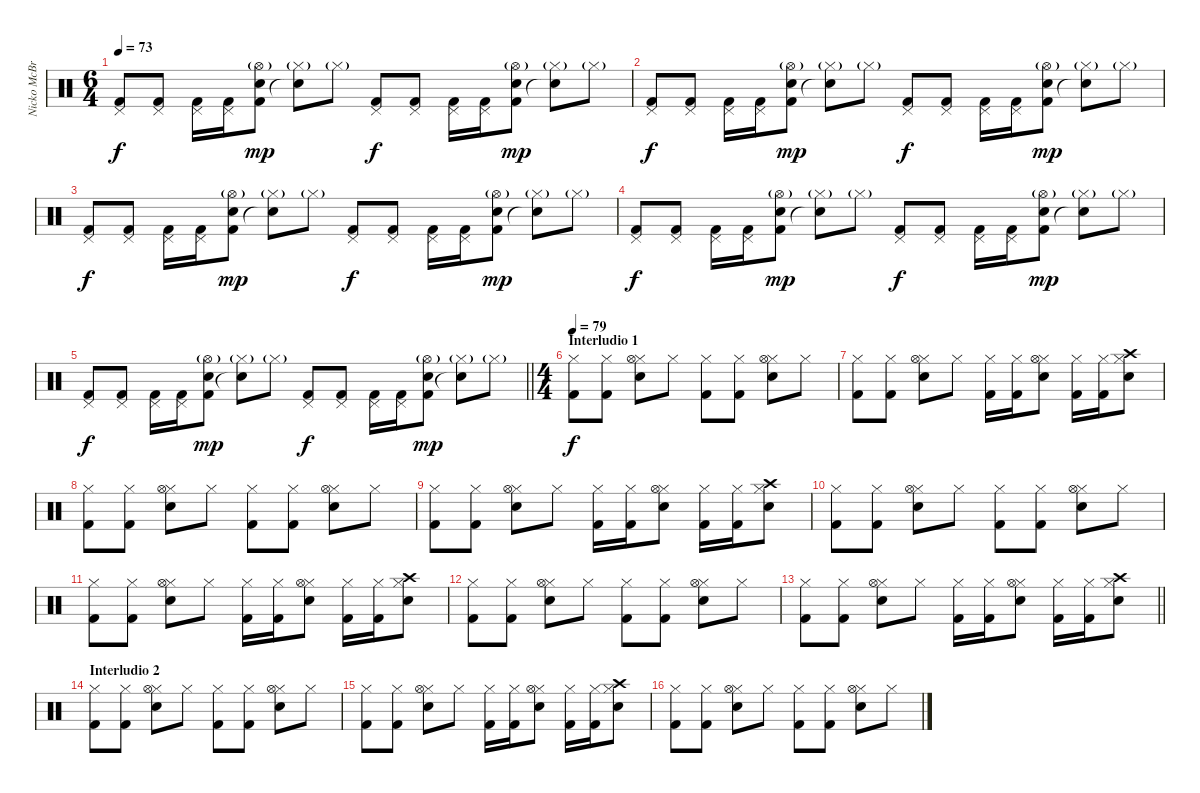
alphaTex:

\track ("Nicko McBrain" "Nicko McBr") {instrument percussion}
\staff {score}
\articulation defaults
\ts (6 4)
\tempo 73
\clef neutral
\ks c
("Kick (hit) 2" "Pedal Hi-Hat (hit)").8{dy f} ("Kick (hit) 2" "Pedal Hi-Hat (hit)").8 ("Kick (hit) 2" "Pedal Hi-Hat (hit)").16 ("Kick (hit) 2" "Pedal Hi-Hat (hit)").16 ("Snare (hit) 2" "Kick (hit) 2" "Hi-Hat (open)"{g}).8{dy mp} ("Hi-Hat (closed)"{g} "Snare (hit)"{t}).8 "Hi-Hat (closed)"{g}.8 ("Kick (hit) 2" "Pedal Hi-Hat (hit)").8{dy f} ("Kick (hit) 2" "Pedal Hi-Hat (hit)").8 ("Kick (hit) 2" "Pedal Hi-Hat (hit)").16 ("Kick (hit) 2" "Pedal Hi-Hat (hit)").16 ("Snare (hit) 2" "Kick (hit) 2" "Hi-Hat (open)"{g}).8{dy mp} ("Hi-Hat (closed)"{g} "Snare (hit)"{t}).8 "Hi-Hat (closed)"{g}.8 |
("Kick (hit) 2" "Pedal Hi-Hat (hit)").8{dy f} ("Kick (hit) 2" "Pedal Hi-Hat (hit)").8 ("Kick (hit) 2" "Pedal Hi-Hat (hit)").16 ("Kick (hit) 2" "Pedal Hi-Hat (hit)").16 ("Snare (hit) 2" "Kick (hit) 2" "Hi-Hat (open)"{g}).8{dy mp} ("Hi-Hat (closed)"{g} "Snare (hit)"{t}).8 "Hi-Hat (closed)"{g}.8 ("Kick (hit) 2" "Pedal Hi-Hat (hit)").8{dy f} ("Kick (hit) 2" "Pedal Hi-Hat (hit)").8 ("Kick (hit) 2" "Pedal Hi-Hat (hit)").16 ("Kick (hit) 2" "Pedal Hi-Hat (hit)").16 ("Snare (hit) 2" "Kick (hit) 2" "Hi-Hat (open)"{g}).8{dy mp} ("Hi-Hat (closed)"{g} "Snare (hit)"{t}).8 "Hi-Hat (closed)"{g}.8 |
("Kick (hit) 2" "Pedal Hi-Hat (hit)").8{dy f} ("Kick (hit) 2" "Pedal Hi-Hat (hit)").8 ("Kick (hit) 2" "Pedal Hi-Hat (hit)").16 ("Kick (hit) 2" "Pedal Hi-Hat (hit)").16 ("Snare (hit) 2" "Kick (hit) 2" "Hi-Hat (open)"{g}).8{dy mp} ("Hi-Hat (closed)"{g} "Snare (hit)"{t}).8 "Hi-Hat (closed)"{g}.8 ("Kick (hit) 2" "Pedal Hi-Hat (hit)").8{dy f} ("Kick (hit) 2" "Pedal Hi-Hat (hit)").8 ("Kick (hit) 2" "Pedal Hi-Hat (hit)").16 ("Kick (hit) 2" "Pedal Hi-Hat (hit)").16 ("Snare (hit) 2" "Kick (hit) 2" "Hi-Hat (open)"{g}).8{dy mp} ("Hi-Hat (closed)"{g} "Snare (hit)"{t}).8 "Hi-Hat (closed)"{g}.8 |
("Kick (hit) 2" "Pedal Hi-Hat (hit)").8{dy f} ("Kick (hit) 2" "Pedal Hi-Hat (hit)").8 ("Kick (hit) 2" "Pedal Hi-Hat (hit)").16 ("Kick (hit) 2" "Pedal Hi-Hat (hit)").16 ("Snare (hit) 2" "Kick (hit) 2" "Hi-Hat (open)"{g}).8{dy mp} ("Hi-Hat (closed)"{g} "Snare (hit)"{t}).8 "Hi-Hat (closed)"{g}.8 ("Kick (hit) 2" "Pedal Hi-Hat (hit)").8{dy f} ("Kick (hit) 2" "Pedal Hi-Hat (hit)").8 ("Kick (hit) 2" "Pedal Hi-Hat (hit)").16 ("Kick (hit) 2" "Pedal Hi-Hat (hit)").16 ("Snare (hit) 2" "Kick (hit) 2" "Hi-Hat (open)"{g}).8{dy mp} ("Hi-Hat (closed)"{g} "Snare (hit)"{t}).8 "Hi-Hat (closed)"{g}.8 |
\barLineRight lightlight
("Kick (hit) 2" "Pedal Hi-Hat (hit)").8{dy f} ("Kick (hit) 2" "Pedal Hi-Hat (hit)").8 ("Kick (hit) 2" "Pedal Hi-Hat (hit)").16 ("Kick (hit) 2" "Pedal Hi-Hat (hit)").16 ("Snare (hit) 2" "Kick (hit) 2" "Hi-Hat (open)"{g}).8{dy mp} ("Hi-Hat (closed)"{g} "Snare (hit)"{t}).8 "Hi-Hat (closed)"{g}.8 ("Kick (hit) 2" "Pedal Hi-Hat (hit)").8{dy f} ("Kick (hit) 2" "Pedal Hi-Hat (hit)").8 ("Kick (hit) 2" "Pedal Hi-Hat (hit)").16 ("Kick (hit) 2" "Pedal Hi-Hat (hit)").16 ("Snare (hit) 2" "Kick (hit) 2" "Hi-Hat (open)"{g}).8{dy mp} ("Hi-Hat (closed)"{g} "Snare (hit)"{t}).8 "Hi-Hat (closed)"{g}.8 |
\ts (4 4)
\section ("" "Interludio 1")
\tempo 79
("Kick (hit) 2" "Hi-Hat (closed)").8{dy f} ("Kick (hit) 2" "Hi-Hat (closed)").8 ("Snare (hit) 2" "Hi-Hat (closed)" "Hi-Hat (open)").8 "Hi-Hat (closed)".8 ("Kick (hit) 2" "Hi-Hat (closed)").8 ("Kick (hit) 2" "Hi-Hat (closed)").8 ("Snare (hit) 2" "Hi-Hat (closed)" "Hi-Hat (open)").8 "Hi-Hat (closed)".8 |
("Kick (hit) 2" "Hi-Hat (closed)").8 ("Kick (hit) 2" "Hi-Hat (closed)").8 ("Snare (hit) 2" "Hi-Hat (closed)" "Hi-Hat (open)").8 "Hi-Hat (closed)".8 ("Kick (hit) 2" "Hi-Hat (closed)").16 ("Kick (hit) 2" "Hi-Hat (closed)").16 ("Snare (hit) 2" "Hi-Hat (closed)" "Hi-Hat (open)").8 ("Kick (hit) 2" "Hi-Hat (closed)").16 ("Kick (hit) 2" "Hi-Hat (closed)").16 ("Snare (hit) 2" "Hi-Hat (closed)" "Crash high (hit)").8 |
("Kick (hit) 2" "Hi-Hat (closed)").8 ("Kick (hit) 2" "Hi-Hat (closed)").8 ("Snare (hit) 2" "Hi-Hat (closed)" "Hi-Hat (open)").8 "Hi-Hat (closed)".8 ("Kick (hit) 2" "Hi-Hat (closed)").8 ("Kick (hit) 2" "Hi-Hat (closed)").8 ("Snare (hit) 2" "Hi-Hat (closed)" "Hi-Hat (open)").8 "Hi-Hat (closed)".8 |
("Kick (hit) 2" "Hi-Hat (closed)").8 ("Kick (hit) 2" "Hi-Hat (closed)").8 ("Snare (hit) 2" "Hi-Hat (closed)" "Hi-Hat (open)").8 "Hi-Hat (closed)".8 ("Kick (hit) 2" "Hi-Hat (closed)").16 ("Kick (hit) 2" "Hi-Hat (closed)").16 ("Snare (hit) 2" "Hi-Hat (closed)" "Hi-Hat (open)").8 ("Kick (hit) 2" "Hi-Hat (closed)").16 ("Kick (hit) 2" "Hi-Hat (closed)").16 ("Snare (hit) 2" "Hi-Hat (closed)" "Crash high (hit)").8 |
("Kick (hit) 2" "Hi-Hat (closed)").8 ("Kick (hit) 2" "Hi-Hat (closed)").8 ("Snare (hit) 2" "Hi-Hat (closed)" "Hi-Hat (open)").8 "Hi-Hat (closed)".8 ("Kick (hit) 2" "Hi-Hat (closed)").8 ("Kick (hit) 2" "Hi-Hat (closed)").8 ("Snare (hit) 2" "Hi-Hat (closed)" "Hi-Hat (open)").8 "Hi-Hat (closed)".8 |
("Kick (hit) 2" "Hi-Hat (closed)").8 ("Kick (hit) 2" "Hi-Hat (closed)").8 ("Snare (hit) 2" "Hi-Hat (closed)" "Hi-Hat (open)").8 "Hi-Hat (closed)".8 ("Kick (hit) 2" "Hi-Hat (closed)").16 ("Kick (hit) 2" "Hi-Hat (closed)").16 ("Snare (hit) 2" "Hi-Hat (closed)" "Hi-Hat (open)").8 ("Kick (hit) 2" "Hi-Hat (closed)").16 ("Kick (hit) 2" "Hi-Hat (closed)").16 ("Snare (hit) 2" "Hi-Hat (closed)" "Crash high (hit)").8 |
("Kick (hit) 2" "Hi-Hat (closed)").8 ("Kick (hit) 2" "Hi-Hat (closed)").8 ("Snare (hit) 2" "Hi-Hat (closed)" "Hi-Hat (open)").8 "Hi-Hat (closed)".8 ("Kick (hit) 2" "Hi-Hat (closed)").8 ("Kick (hit) 2" "Hi-Hat (closed)").8 ("Snare (hit) 2" "Hi-Hat (closed)" "Hi-Hat (open)").8 "Hi-Hat (closed)".8 |
\barLineRight lightlight
("Kick (hit) 2" "Hi-Hat (closed)").8 ("Kick (hit) 2" "Hi-Hat (closed)").8 ("Snare (hit) 2" "Hi-Hat (closed)" "Hi-Hat (open)").8 "Hi-Hat (closed)".8 ("Kick (hit) 2" "Hi-Hat (closed)").16 ("Kick (hit) 2" "Hi-Hat (closed)").16 ("Snare (hit) 2" "Hi-Hat (closed)" "Hi-Hat (open)").8 ("Kick (hit) 2" "Hi-Hat (closed)").16 ("Kick (hit) 2" "Hi-Hat (closed)").16 ("Snare (hit) 2" "Hi-Hat (closed)" "Crash high (hit)").8 |
\section ("" "Interludio 2")
("Kick (hit) 2" "Hi-Hat (closed)").8 ("Kick (hit) 2" "Hi-Hat (closed)").8 ("Snare (hit) 2" "Hi-Hat (closed)" "Hi-Hat (open)").8 "Hi-Hat (closed)".8 ("Kick (hit) 2" "Hi-Hat (closed)").8 ("Kick (hit) 2" "Hi-Hat (closed)").8 ("Snare (hit) 2" "Hi-Hat (closed)" "Hi-Hat (open)").8 "Hi-Hat (closed)".8 |
("Kick (hit) 2" "Hi-Hat (closed)").8 ("Kick (hit) 2" "Hi-Hat (closed)").8 ("Snare (hit) 2" "Hi-Hat (closed)" "Hi-Hat (open)").8 "Hi-Hat (closed)".8 ("Kick (hit) 2" "Hi-Hat (closed)").16 ("Kick (hit) 2" "Hi-Hat (closed)").16 ("Snare (hit) 2" "Hi-Hat (closed)" "Hi-Hat (open)").8 ("Kick (hit) 2" "Hi-Hat (closed)").16 ("Kick (hit) 2" "Hi-Hat (closed)").16 ("Snare (hit) 2" "Hi-Hat (closed)" "Crash high (hit)").8 |
("Kick (hit) 2" "Hi-Hat (closed)").8 ("Kick (hit) 2" "Hi-Hat (closed)").8 ("Snare (hit) 2" "Hi-Hat (closed)" "Hi-Hat (open)").8 "Hi-Hat (closed)".8 ("Kick (hit) 2" "Hi-Hat (closed)").8 ("Kick (hit) 2" "Hi-Hat (closed)").8 ("Snare (hit) 2" "Hi-Hat (closed)" "Hi-Hat (open)").8 "Hi-Hat (closed)".8
